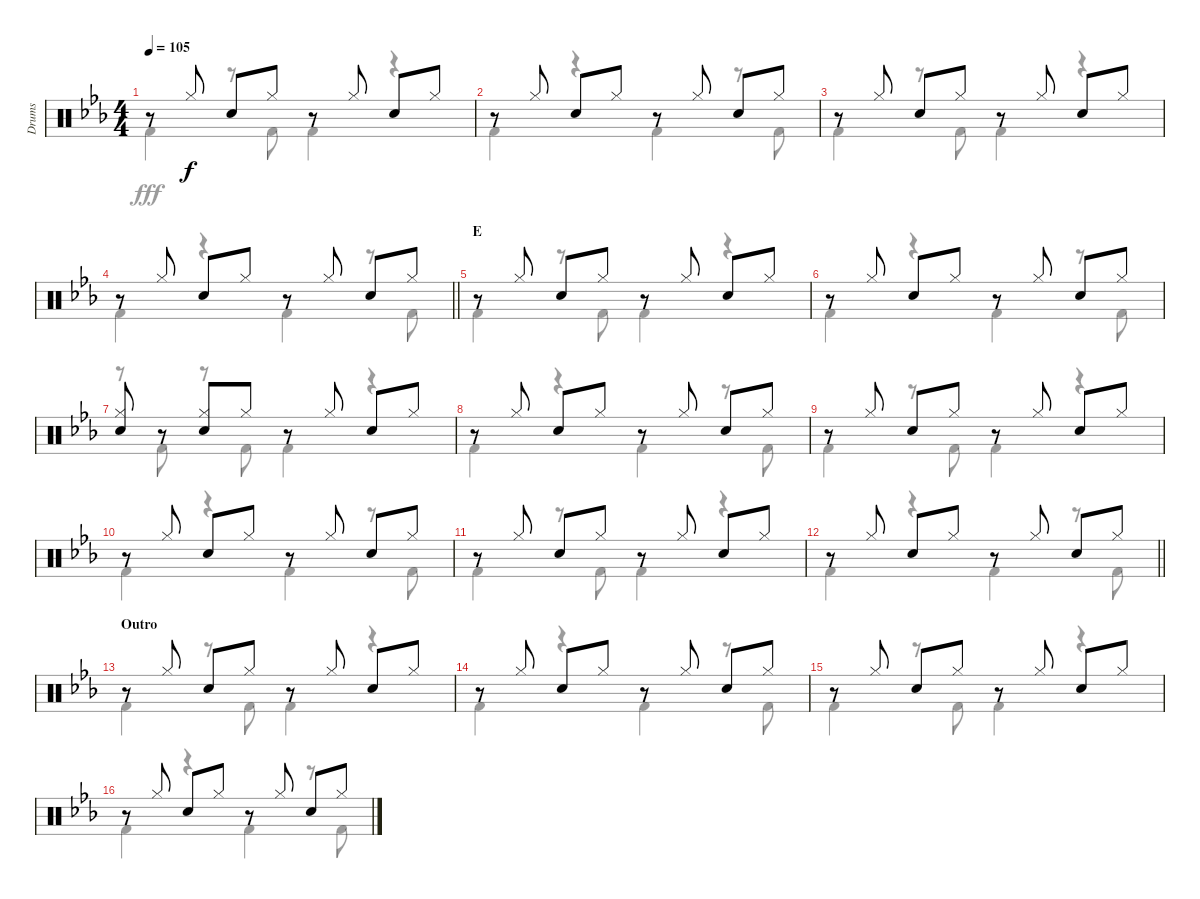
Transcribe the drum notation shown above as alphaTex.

\track ("Drums" "Drums") {instrument percussion}
\staff {score}
\articulation defaults
\voice
\ts (4 4)
\tempo 105
\clef neutral
\ks eb
r.8{dy f} "Hi-Hat (closed)".8 "Snare (hit) 2".8 "Hi-Hat (closed)".8 r.8 "Hi-Hat (closed)".8 "Snare (hit) 2".8 "Hi-Hat (closed)".8 |
r.8 "Hi-Hat (closed)".8 "Snare (hit) 2".8 "Hi-Hat (closed)".8 r.8 "Hi-Hat (closed)".8 "Snare (hit) 2".8 "Hi-Hat (closed)".8 |
r.8 "Hi-Hat (closed)".8 "Snare (hit) 2".8 "Hi-Hat (closed)".8 r.8 "Hi-Hat (closed)".8 "Snare (hit) 2".8 "Hi-Hat (closed)".8 |
\barLineRight lightlight
r.8 "Hi-Hat (closed)".8 "Snare (hit) 2".8 "Hi-Hat (closed)".8 r.8 "Hi-Hat (closed)".8 "Snare (hit) 2".8 "Hi-Hat (closed)".8 |
\section ("" "E")
r.8 "Hi-Hat (closed)".8 "Snare (hit) 2".8 "Hi-Hat (closed)".8 r.8 "Hi-Hat (closed)".8 "Snare (hit) 2".8 "Hi-Hat (closed)".8 |
r.8 "Hi-Hat (closed)".8 "Snare (hit) 2".8 "Hi-Hat (closed)".8 r.8 "Hi-Hat (closed)".8 "Snare (hit) 2".8 "Hi-Hat (closed)".8 |
("Hi-Hat (closed)" "Snare (hit) 2").8 r.8 ("Hi-Hat (closed)" "Snare (hit) 2").8 "Hi-Hat (closed)".8 r.8 "Hi-Hat (closed)".8 "Snare (hit) 2".8 "Hi-Hat (closed)".8 |
r.8 "Hi-Hat (closed)".8 "Snare (hit) 2".8 "Hi-Hat (closed)".8 r.8 "Hi-Hat (closed)".8 "Snare (hit) 2".8 "Hi-Hat (closed)".8 |
r.8 "Hi-Hat (closed)".8 "Snare (hit) 2".8 "Hi-Hat (closed)".8 r.8 "Hi-Hat (closed)".8 "Snare (hit) 2".8 "Hi-Hat (closed)".8 |
r.8 "Hi-Hat (closed)".8 "Snare (hit) 2".8 "Hi-Hat (closed)".8 r.8 "Hi-Hat (closed)".8 "Snare (hit) 2".8 "Hi-Hat (closed)".8 |
r.8 "Hi-Hat (closed)".8 "Snare (hit) 2".8 "Hi-Hat (closed)".8 r.8 "Hi-Hat (closed)".8 "Snare (hit) 2".8 "Hi-Hat (closed)".8 |
\barLineRight lightlight
r.8 "Hi-Hat (closed)".8 "Snare (hit) 2".8 "Hi-Hat (closed)".8 r.8 "Hi-Hat (closed)".8 "Snare (hit) 2".8 "Hi-Hat (closed)".8 |
\section ("" "Outro")
r.8 "Hi-Hat (closed)".8 "Snare (hit) 2".8 "Hi-Hat (closed)".8 r.8 "Hi-Hat (closed)".8 "Snare (hit) 2".8 "Hi-Hat (closed)".8 |
r.8 "Hi-Hat (closed)".8 "Snare (hit) 2".8 "Hi-Hat (closed)".8 r.8 "Hi-Hat (closed)".8 "Snare (hit) 2".8 "Hi-Hat (closed)".8 |
r.8 "Hi-Hat (closed)".8 "Snare (hit) 2".8 "Hi-Hat (closed)".8 r.8 "Hi-Hat (closed)".8 "Snare (hit) 2".8 "Hi-Hat (closed)".8 |
r.8 "Hi-Hat (closed)".8 "Snare (hit) 2".8 "Hi-Hat (closed)".8 r.8 "Hi-Hat (closed)".8 "Snare (hit) 2".8 "Hi-Hat (closed)".8
\voice
\clef neutral
\ottava regular
\simile none
\ks eb "Kick (hit) 2".4{dy fff}
r.8 "Kick (hit) 2".8 "Kick (hit) 2".4 r.4 |
"Kick (hit) 2".4 r.4 "Kick (hit) 2".4 r.8 "Kick (hit) 2".8 |
"Kick (hit) 2".4 r.8 "Kick (hit) 2".8 "Kick (hit) 2".4 r.4 |
\barLineRight lightlight "Kick (hit) 2".4
r.4 "Kick (hit) 2".4 r.8 "Kick (hit) 2".8 |
"Kick (hit) 2".4 r.8 "Kick (hit) 2".8 "Kick (hit) 2".4 r.4 |
"Kick (hit) 2".4 r.4 "Kick (hit) 2".4 r.8 "Kick (hit) 2".8 |
r.8 "Kick (hit) 2".8 r.8 "Kick (hit) 2".8 "Kick (hit) 2".4 r.4 |
"Kick (hit) 2".4 r.4 "Kick (hit) 2".4 r.8 "Kick (hit) 2".8 |
"Kick (hit) 2".4 r.8 "Kick (hit) 2".8 "Kick (hit) 2".4 r.4 |
"Kick (hit) 2".4 r.4 "Kick (hit) 2".4 r.8 "Kick (hit) 2".8 |
"Kick (hit) 2".4 r.8 "Kick (hit) 2".8 "Kick (hit) 2".4 r.4 |
\barLineRight lightlight "Kick (hit) 2".4
r.4 "Kick (hit) 2".4 r.8 "Kick (hit) 2".8 |
"Kick (hit) 2".4 r.8 "Kick (hit) 2".8 "Kick (hit) 2".4 r.4 |
"Kick (hit) 2".4 r.4 "Kick (hit) 2".4 r.8 "Kick (hit) 2".8 |
"Kick (hit) 2".4 r.8 "Kick (hit) 2".8 "Kick (hit) 2".4 r.4 |
"Kick (hit) 2".4 r.4 "Kick (hit) 2".4 r.8 "Kick (hit) 2".8
